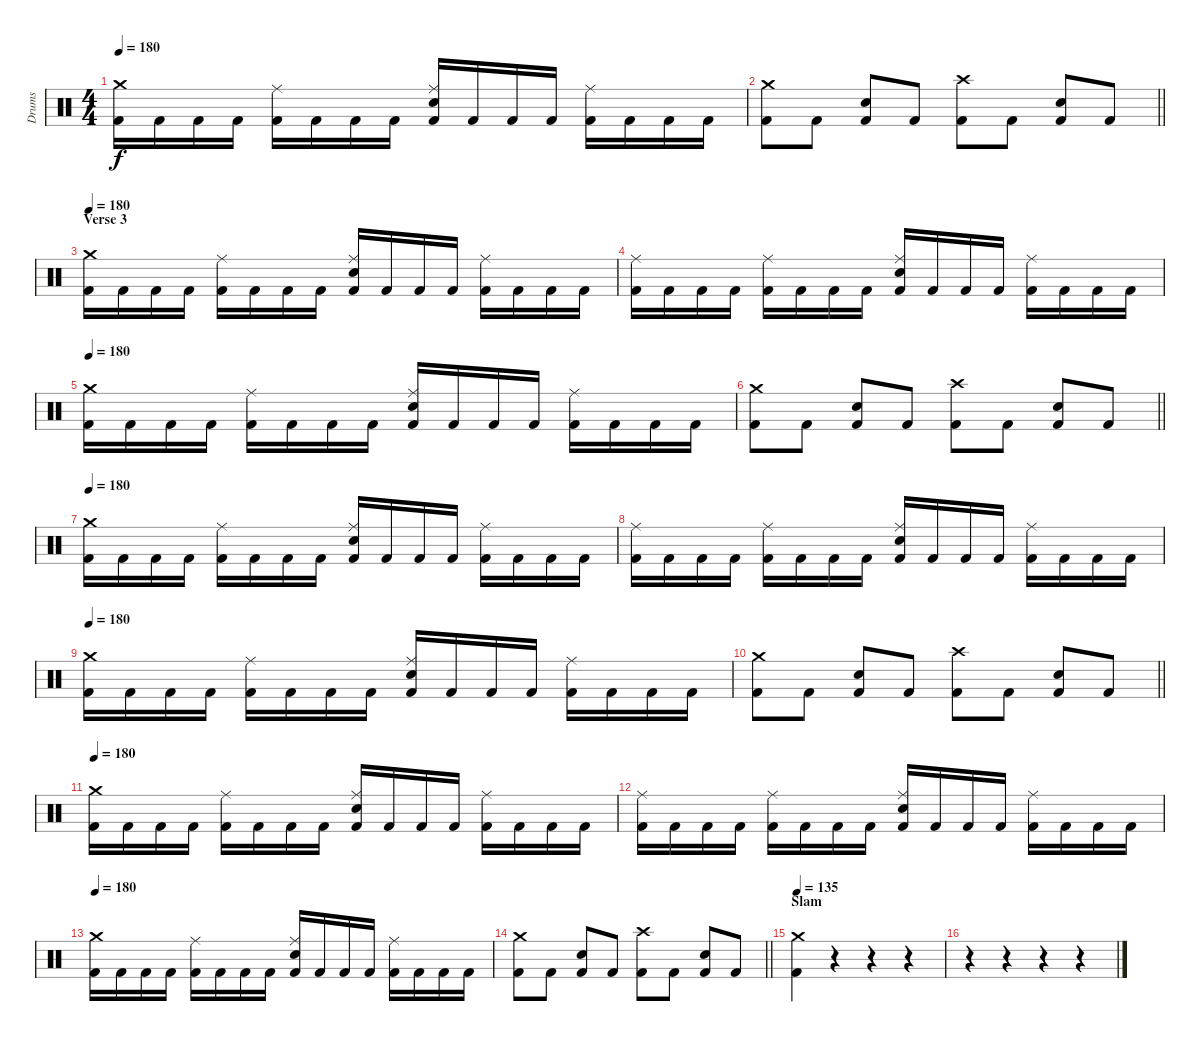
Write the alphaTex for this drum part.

\track ("Drums" "Drums") {instrument percussion}
\staff {score}
\articulation defaults
\ts (4 4)
\tempo 180
\clef neutral
\ks c
("Crash medium (hit)" "Kick (hit) 2").16{dy f} "Kick (hit) 2".16 "Kick (hit) 2".16 "Kick (hit) 2".16 ("Ride (middle)" "Kick (hit) 2").16 "Kick (hit) 2".16 "Kick (hit) 2".16 "Kick (hit) 2".16 ("Ride (middle)" "Electric Snare (hit)" "Kick (hit) 2").16 "Kick (hit) 2".16 "Kick (hit) 2".16 "Kick (hit) 2".16 ("Ride (middle)" "Kick (hit) 2").16 "Kick (hit) 2".16 "Kick (hit) 2".16 "Kick (hit) 2".16 |
\barLineRight lightlight
("Crash medium (hit)" "Kick (hit) 2").8 "Kick (hit) 2".8 ("Electric Snare (hit)" "Kick (hit) 2").8 "Kick (hit) 2".8 ("Crash high (hit)" "Kick (hit) 2").8 "Kick (hit) 2".8 ("Electric Snare (hit)" "Kick (hit) 2").8 "Kick (hit) 2".8 |
\section ("" "Verse 3")
\tempo 180
("Crash medium (hit)" "Kick (hit) 2").16 "Kick (hit) 2".16 "Kick (hit) 2".16 "Kick (hit) 2".16 ("Ride (middle)" "Kick (hit) 2").16 "Kick (hit) 2".16 "Kick (hit) 2".16 "Kick (hit) 2".16 ("Ride (middle)" "Electric Snare (hit)" "Kick (hit) 2").16 "Kick (hit) 2".16 "Kick (hit) 2".16 "Kick (hit) 2".16 ("Ride (middle)" "Kick (hit) 2").16 "Kick (hit) 2".16 "Kick (hit) 2".16 "Kick (hit) 2".16 |
("Ride (middle)" "Kick (hit) 2").16 "Kick (hit) 2".16 "Kick (hit) 2".16 "Kick (hit) 2".16 ("Ride (middle)" "Kick (hit) 2").16 "Kick (hit) 2".16 "Kick (hit) 2".16 "Kick (hit) 2".16 ("Ride (middle)" "Electric Snare (hit)" "Kick (hit) 2").16 "Kick (hit) 2".16 "Kick (hit) 2".16 "Kick (hit) 2".16 ("Ride (middle)" "Kick (hit) 2").16 "Kick (hit) 2".16 "Kick (hit) 2".16 "Kick (hit) 2".16 |
\tempo 180
("Crash medium (hit)" "Kick (hit) 2").16 "Kick (hit) 2".16 "Kick (hit) 2".16 "Kick (hit) 2".16 ("Ride (middle)" "Kick (hit) 2").16 "Kick (hit) 2".16 "Kick (hit) 2".16 "Kick (hit) 2".16 ("Ride (middle)" "Electric Snare (hit)" "Kick (hit) 2").16 "Kick (hit) 2".16 "Kick (hit) 2".16 "Kick (hit) 2".16 ("Ride (middle)" "Kick (hit) 2").16 "Kick (hit) 2".16 "Kick (hit) 2".16 "Kick (hit) 2".16 |
\barLineRight lightlight
("Crash medium (hit)" "Kick (hit) 2").8 "Kick (hit) 2".8 ("Electric Snare (hit)" "Kick (hit) 2").8 "Kick (hit) 2".8 ("Crash high (hit)" "Kick (hit) 2").8 "Kick (hit) 2".8 ("Electric Snare (hit)" "Kick (hit) 2").8 "Kick (hit) 2".8 |
\tempo 180
("Crash medium (hit)" "Kick (hit) 2").16 "Kick (hit) 2".16 "Kick (hit) 2".16 "Kick (hit) 2".16 ("Ride (middle)" "Kick (hit) 2").16 "Kick (hit) 2".16 "Kick (hit) 2".16 "Kick (hit) 2".16 ("Ride (middle)" "Electric Snare (hit)" "Kick (hit) 2").16 "Kick (hit) 2".16 "Kick (hit) 2".16 "Kick (hit) 2".16 ("Ride (middle)" "Kick (hit) 2").16 "Kick (hit) 2".16 "Kick (hit) 2".16 "Kick (hit) 2".16 |
("Ride (middle)" "Kick (hit) 2").16 "Kick (hit) 2".16 "Kick (hit) 2".16 "Kick (hit) 2".16 ("Ride (middle)" "Kick (hit) 2").16 "Kick (hit) 2".16 "Kick (hit) 2".16 "Kick (hit) 2".16 ("Ride (middle)" "Electric Snare (hit)" "Kick (hit) 2").16 "Kick (hit) 2".16 "Kick (hit) 2".16 "Kick (hit) 2".16 ("Ride (middle)" "Kick (hit) 2").16 "Kick (hit) 2".16 "Kick (hit) 2".16 "Kick (hit) 2".16 |
\tempo 180
("Crash medium (hit)" "Kick (hit) 2").16 "Kick (hit) 2".16 "Kick (hit) 2".16 "Kick (hit) 2".16 ("Ride (middle)" "Kick (hit) 2").16 "Kick (hit) 2".16 "Kick (hit) 2".16 "Kick (hit) 2".16 ("Ride (middle)" "Electric Snare (hit)" "Kick (hit) 2").16 "Kick (hit) 2".16 "Kick (hit) 2".16 "Kick (hit) 2".16 ("Ride (middle)" "Kick (hit) 2").16 "Kick (hit) 2".16 "Kick (hit) 2".16 "Kick (hit) 2".16 |
\barLineRight lightlight
("Crash medium (hit)" "Kick (hit) 2").8 "Kick (hit) 2".8 ("Electric Snare (hit)" "Kick (hit) 2").8 "Kick (hit) 2".8 ("Crash high (hit)" "Kick (hit) 2").8 "Kick (hit) 2".8 ("Electric Snare (hit)" "Kick (hit) 2").8 "Kick (hit) 2".8 |
\tempo 180
("Crash medium (hit)" "Kick (hit) 2").16 "Kick (hit) 2".16 "Kick (hit) 2".16 "Kick (hit) 2".16 ("Ride (middle)" "Kick (hit) 2").16 "Kick (hit) 2".16 "Kick (hit) 2".16 "Kick (hit) 2".16 ("Ride (middle)" "Electric Snare (hit)" "Kick (hit) 2").16 "Kick (hit) 2".16 "Kick (hit) 2".16 "Kick (hit) 2".16 ("Ride (middle)" "Kick (hit) 2").16 "Kick (hit) 2".16 "Kick (hit) 2".16 "Kick (hit) 2".16 |
("Ride (middle)" "Kick (hit) 2").16 "Kick (hit) 2".16 "Kick (hit) 2".16 "Kick (hit) 2".16 ("Ride (middle)" "Kick (hit) 2").16 "Kick (hit) 2".16 "Kick (hit) 2".16 "Kick (hit) 2".16 ("Ride (middle)" "Electric Snare (hit)" "Kick (hit) 2").16 "Kick (hit) 2".16 "Kick (hit) 2".16 "Kick (hit) 2".16 ("Ride (middle)" "Kick (hit) 2").16 "Kick (hit) 2".16 "Kick (hit) 2".16 "Kick (hit) 2".16 |
\tempo 180
("Crash medium (hit)" "Kick (hit) 2").16 "Kick (hit) 2".16 "Kick (hit) 2".16 "Kick (hit) 2".16 ("Ride (middle)" "Kick (hit) 2").16 "Kick (hit) 2".16 "Kick (hit) 2".16 "Kick (hit) 2".16 ("Ride (middle)" "Electric Snare (hit)" "Kick (hit) 2").16 "Kick (hit) 2".16 "Kick (hit) 2".16 "Kick (hit) 2".16 ("Ride (middle)" "Kick (hit) 2").16 "Kick (hit) 2".16 "Kick (hit) 2".16 "Kick (hit) 2".16 |
\barLineRight lightlight
("Crash medium (hit)" "Kick (hit) 2").8 "Kick (hit) 2".8 ("Electric Snare (hit)" "Kick (hit) 2").8 "Kick (hit) 2".8 ("Crash high (hit)" "Kick (hit) 2").8 "Kick (hit) 2".8 ("Electric Snare (hit)" "Kick (hit) 2").8 "Kick (hit) 2".8 |
\section ("" "Slam")
\tempo 135
("Crash medium (hit)" "Kick (hit) 2").4 r.4 r.4 r.4 |
r.4 r.4 r.4 r.4
